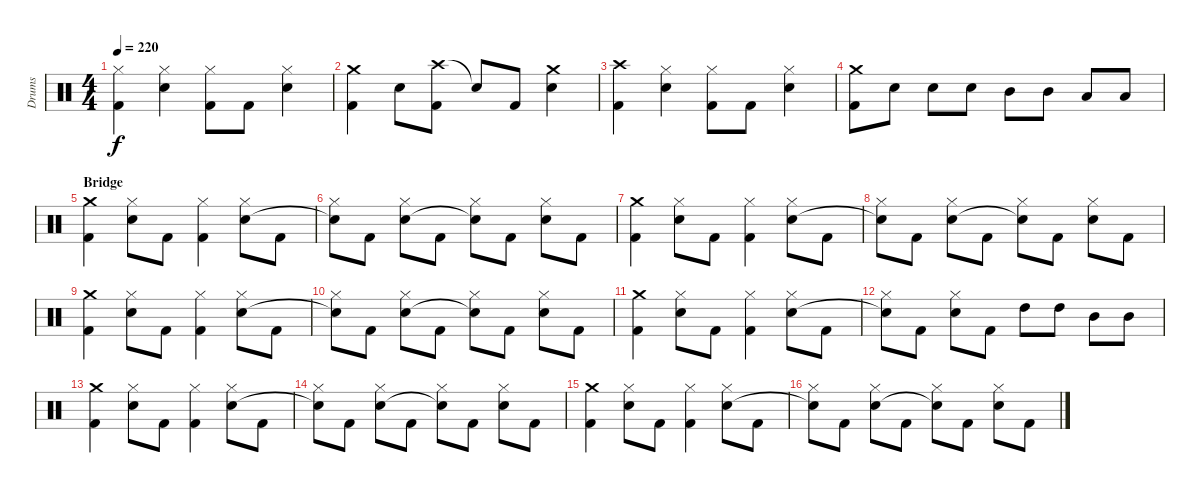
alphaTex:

\track ("Drums" "Drums") {instrument percussion}
\staff {score}
\articulation defaults
\ts (4 4)
\tempo 220
\clef neutral
\ks c
("Hi-Hat (closed)" "Kick (hit) 2").4{dy f} ("Hi-Hat (closed)" "Electric Snare (hit)").4 ("Hi-Hat (closed)" "Kick (hit) 2").8 "Kick (hit) 2".8 ("Hi-Hat (closed)" "Electric Snare (hit)").4 |
("Crash medium (hit)" "Kick (hit) 2").4 "Electric Snare (hit)".8 ("Crash high (hit)" "Kick (hit) 2").8 "Snare (hit)"{t}.8 "Kick (hit) 2".8 ("Crash medium (hit)" "Electric Snare (hit)").4 |
("Crash high (hit)" "Kick (hit) 2").4 ("Hi-Hat (closed)" "Electric Snare (hit)").4 ("Hi-Hat (closed)" "Kick (hit) 2").8 "Kick (hit) 2".8 ("Hi-Hat (closed)" "Electric Snare (hit)").4 |
("Crash medium (hit)" "Kick (hit) 2").8 "Electric Snare (hit)".8 "Electric Snare (hit)".8 "Electric Snare (hit)".8 "Mid Tom (hit)".8 "Mid Tom (hit)".8 "Low Tom (hit)".8 "Low Tom (hit)".8 |
\section ("" "Bridge")
("Crash medium (hit)" "Kick (hit) 2").4 ("Hi-Hat (closed)" "Electric Snare (hit)").8 "Kick (hit) 2".8 ("Hi-Hat (closed)" "Kick (hit) 2").4 ("Hi-Hat (closed)" "Electric Snare (hit)").8 "Kick (hit) 2".8 |
("Hi-Hat (closed)" "Snare (hit)"{t}).8 "Kick (hit) 2".8 ("Hi-Hat (closed)" "Electric Snare (hit)").8 "Kick (hit) 2".8 ("Hi-Hat (closed)" "Snare (hit)"{t}).8 "Kick (hit) 2".8 ("Hi-Hat (closed)" "Electric Snare (hit)").8 "Kick (hit) 2".8 |
("Crash medium (hit)" "Kick (hit) 2").4 ("Hi-Hat (closed)" "Electric Snare (hit)").8 "Kick (hit) 2".8 ("Hi-Hat (closed)" "Kick (hit) 2").4 ("Hi-Hat (closed)" "Electric Snare (hit)").8 "Kick (hit) 2".8 |
("Hi-Hat (closed)" "Snare (hit)"{t}).8 "Kick (hit) 2".8 ("Hi-Hat (closed)" "Electric Snare (hit)").8 "Kick (hit) 2".8 ("Hi-Hat (closed)" "Snare (hit)"{t}).8 "Kick (hit) 2".8 ("Hi-Hat (closed)" "Electric Snare (hit)").8 "Kick (hit) 2".8 |
("Crash medium (hit)" "Kick (hit) 2").4 ("Hi-Hat (closed)" "Electric Snare (hit)").8 "Kick (hit) 2".8 ("Hi-Hat (closed)" "Kick (hit) 2").4 ("Hi-Hat (closed)" "Electric Snare (hit)").8 "Kick (hit) 2".8 |
("Hi-Hat (closed)" "Snare (hit)"{t}).8 "Kick (hit) 2".8 ("Hi-Hat (closed)" "Electric Snare (hit)").8 "Kick (hit) 2".8 ("Hi-Hat (closed)" "Snare (hit)"{t}).8 "Kick (hit) 2".8 ("Hi-Hat (closed)" "Electric Snare (hit)").8 "Kick (hit) 2".8 |
("Crash medium (hit)" "Kick (hit) 2").4 ("Hi-Hat (closed)" "Electric Snare (hit)").8 "Kick (hit) 2".8 ("Hi-Hat (closed)" "Kick (hit) 2").4 ("Hi-Hat (closed)" "Electric Snare (hit)").8 "Kick (hit) 2".8 |
("Hi-Hat (closed)" "Snare (hit)"{t}).8 "Kick (hit) 2".8 ("Hi-Hat (closed)" "Electric Snare (hit)").8 "Kick (hit) 2".8 "High Tom (hit)".8 "High Tom (hit)".8 "Mid Tom (hit)".8 "Mid Tom (hit)".8 |
("Crash medium (hit)" "Kick (hit) 2").4 ("Hi-Hat (closed)" "Electric Snare (hit)").8 "Kick (hit) 2".8 ("Hi-Hat (closed)" "Kick (hit) 2").4 ("Hi-Hat (closed)" "Electric Snare (hit)").8 "Kick (hit) 2".8 |
("Hi-Hat (closed)" "Snare (hit)"{t}).8 "Kick (hit) 2".8 ("Hi-Hat (closed)" "Electric Snare (hit)").8 "Kick (hit) 2".8 ("Hi-Hat (closed)" "Snare (hit)"{t}).8 "Kick (hit) 2".8 ("Hi-Hat (closed)" "Electric Snare (hit)").8 "Kick (hit) 2".8 |
("Crash medium (hit)" "Kick (hit) 2").4 ("Hi-Hat (closed)" "Electric Snare (hit)").8 "Kick (hit) 2".8 ("Hi-Hat (closed)" "Kick (hit) 2").4 ("Hi-Hat (closed)" "Electric Snare (hit)").8 "Kick (hit) 2".8 |
("Hi-Hat (closed)" "Snare (hit)"{t}).8 "Kick (hit) 2".8 ("Hi-Hat (closed)" "Electric Snare (hit)").8 "Kick (hit) 2".8 ("Hi-Hat (closed)" "Snare (hit)"{t}).8 "Kick (hit) 2".8 ("Hi-Hat (closed)" "Electric Snare (hit)").8 "Kick (hit) 2".8
